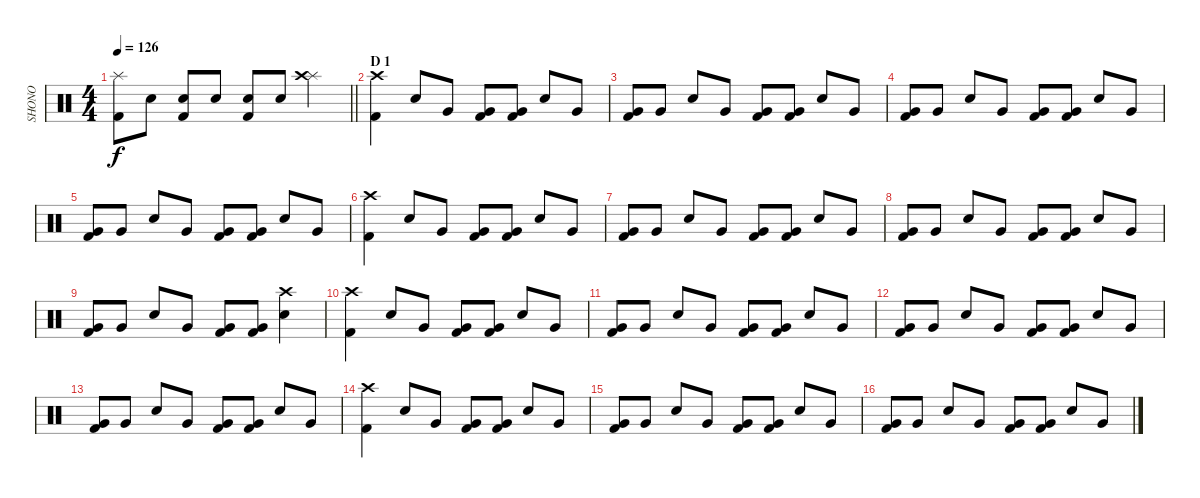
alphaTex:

\track ("SHONO" "SHONO") {instrument percussion}
\staff {score}
\articulation defaults
\ts (4 4)
\tempo 126
\clef neutral
\barLineRight lightlight
\ks c
("Splash (hit)" "Kick (hit) 2").8{dy f} "Snare (hit) 2".8 ("Kick (hit) 2" "Snare (hit) 2").8 "Snare (hit) 2".8 ("Kick (hit) 2" "Snare (hit) 2").8 "Snare (hit) 2".8 ("Splash (hit)" "Crash high (hit)").4 |
\section ("" "D 1")
("Crash high (hit)" "Kick (hit) 2").4 "Snare (hit) 2".8 "Very Low Tom (hit)".8 ("Very Low Tom (hit)" "Kick (hit) 2").8 ("Very Low Tom (hit)" "Kick (hit) 2").8 "Snare (hit) 2".8 "Very Low Tom (hit)".8 |
("Very Low Tom (hit)" "Kick (hit) 2").8 "Very Low Tom (hit)".8 "Snare (hit) 2".8 "Very Low Tom (hit)".8 ("Very Low Tom (hit)" "Kick (hit) 2").8 ("Very Low Tom (hit)" "Kick (hit) 2").8 "Snare (hit) 2".8 "Very Low Tom (hit)".8 |
("Very Low Tom (hit)" "Kick (hit) 2").8 "Very Low Tom (hit)".8 "Snare (hit) 2".8 "Very Low Tom (hit)".8 ("Very Low Tom (hit)" "Kick (hit) 2").8 ("Very Low Tom (hit)" "Kick (hit) 2").8 "Snare (hit) 2".8 "Very Low Tom (hit)".8 |
("Very Low Tom (hit)" "Kick (hit) 2").8 "Very Low Tom (hit)".8 "Snare (hit) 2".8 "Very Low Tom (hit)".8 ("Very Low Tom (hit)" "Kick (hit) 2").8 ("Very Low Tom (hit)" "Kick (hit) 2").8 "Snare (hit) 2".8 "Very Low Tom (hit)".8 |
("Crash high (hit)" "Kick (hit) 2").4 "Snare (hit) 2".8 "Very Low Tom (hit)".8 ("Very Low Tom (hit)" "Kick (hit) 2").8 ("Very Low Tom (hit)" "Kick (hit) 2").8 "Snare (hit) 2".8 "Very Low Tom (hit)".8 |
("Very Low Tom (hit)" "Kick (hit) 2").8 "Very Low Tom (hit)".8 "Snare (hit) 2".8 "Very Low Tom (hit)".8 ("Very Low Tom (hit)" "Kick (hit) 2").8 ("Very Low Tom (hit)" "Kick (hit) 2").8 "Snare (hit) 2".8 "Very Low Tom (hit)".8 |
("Very Low Tom (hit)" "Kick (hit) 2").8 "Very Low Tom (hit)".8 "Snare (hit) 2".8 "Very Low Tom (hit)".8 ("Very Low Tom (hit)" "Kick (hit) 2").8 ("Very Low Tom (hit)" "Kick (hit) 2").8 "Snare (hit) 2".8 "Very Low Tom (hit)".8 |
("Very Low Tom (hit)" "Kick (hit) 2").8 "Very Low Tom (hit)".8 "Snare (hit) 2".8 "Very Low Tom (hit)".8 ("Very Low Tom (hit)" "Kick (hit) 2").8 ("Very Low Tom (hit)" "Kick (hit) 2").8 ("Crash high (hit)" "Snare (hit) 2").4 |
("Crash high (hit)" "Kick (hit) 2").4 "Snare (hit) 2".8 "Very Low Tom (hit)".8 ("Very Low Tom (hit)" "Kick (hit) 2").8 ("Very Low Tom (hit)" "Kick (hit) 2").8 "Snare (hit) 2".8 "Very Low Tom (hit)".8 |
("Very Low Tom (hit)" "Kick (hit) 2").8 "Very Low Tom (hit)".8 "Snare (hit) 2".8 "Very Low Tom (hit)".8 ("Very Low Tom (hit)" "Kick (hit) 2").8 ("Very Low Tom (hit)" "Kick (hit) 2").8 "Snare (hit) 2".8 "Very Low Tom (hit)".8 |
("Very Low Tom (hit)" "Kick (hit) 2").8 "Very Low Tom (hit)".8 "Snare (hit) 2".8 "Very Low Tom (hit)".8 ("Very Low Tom (hit)" "Kick (hit) 2").8 ("Very Low Tom (hit)" "Kick (hit) 2").8 "Snare (hit) 2".8 "Very Low Tom (hit)".8 |
("Very Low Tom (hit)" "Kick (hit) 2").8 "Very Low Tom (hit)".8 "Snare (hit) 2".8 "Very Low Tom (hit)".8 ("Very Low Tom (hit)" "Kick (hit) 2").8 ("Very Low Tom (hit)" "Kick (hit) 2").8 "Snare (hit) 2".8 "Very Low Tom (hit)".8 |
("Crash high (hit)" "Kick (hit) 2").4 "Snare (hit) 2".8 "Very Low Tom (hit)".8 ("Very Low Tom (hit)" "Kick (hit) 2").8 ("Very Low Tom (hit)" "Kick (hit) 2").8 "Snare (hit) 2".8 "Very Low Tom (hit)".8 |
("Very Low Tom (hit)" "Kick (hit) 2").8 "Very Low Tom (hit)".8 "Snare (hit) 2".8 "Very Low Tom (hit)".8 ("Very Low Tom (hit)" "Kick (hit) 2").8 ("Very Low Tom (hit)" "Kick (hit) 2").8 "Snare (hit) 2".8 "Very Low Tom (hit)".8 |
("Very Low Tom (hit)" "Kick (hit) 2").8 "Very Low Tom (hit)".8 "Snare (hit) 2".8 "Very Low Tom (hit)".8 ("Very Low Tom (hit)" "Kick (hit) 2").8 ("Very Low Tom (hit)" "Kick (hit) 2").8 "Snare (hit) 2".8 "Very Low Tom (hit)".8
